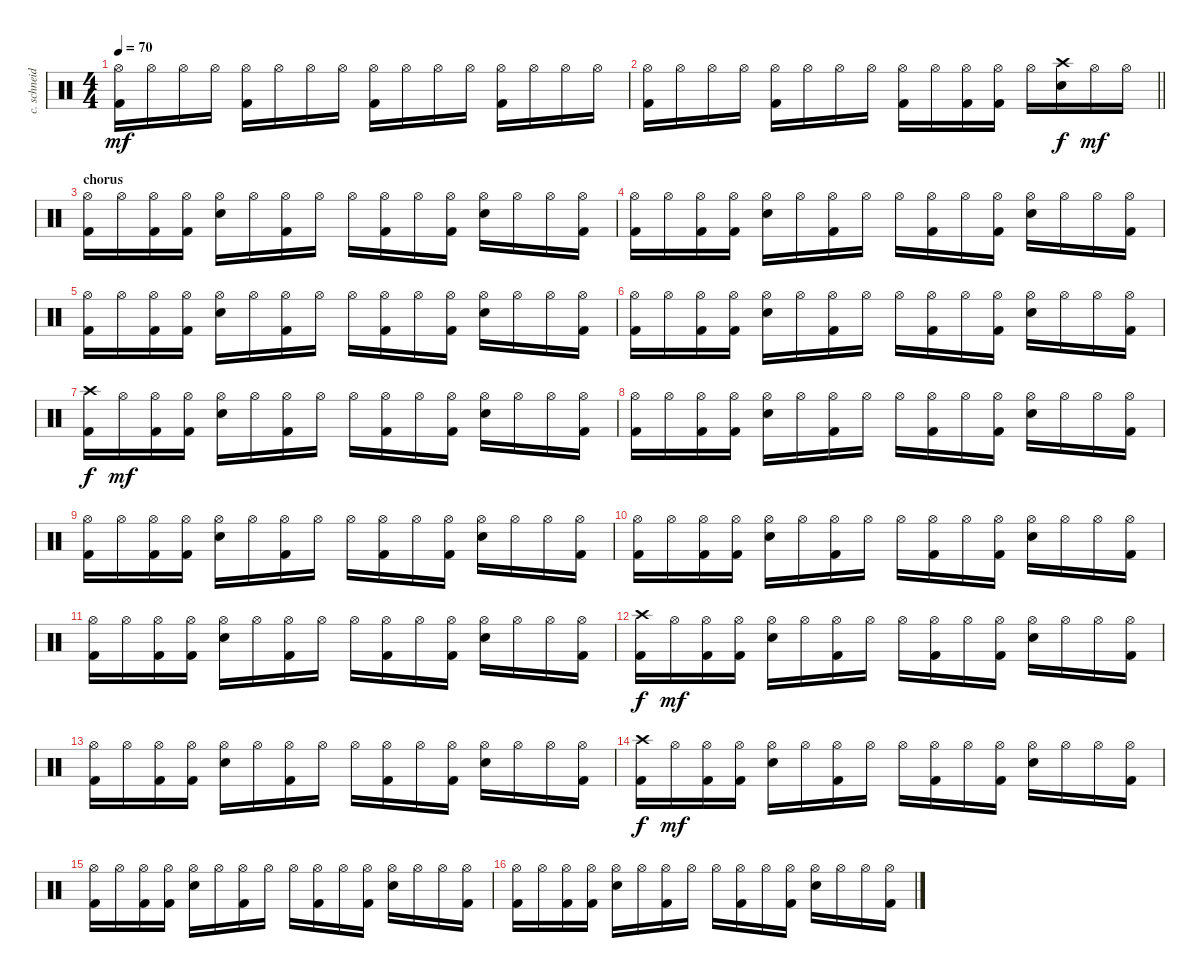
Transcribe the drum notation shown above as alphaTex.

\track ("c. schneider - drums" "c. schneid") {instrument percussion}
\staff {score}
\articulation defaults
\ts (4 4)
\tempo 70
\clef neutral
\ks c
("Hi-Hat (open)" "Kick (hit) 2").16{dy mf} "Hi-Hat (open)".16 "Hi-Hat (open)".16 "Hi-Hat (open)".16 ("Hi-Hat (open)" "Kick (hit) 2").16 "Hi-Hat (open)".16 "Hi-Hat (open)".16 "Hi-Hat (open)".16 ("Hi-Hat (open)" "Kick (hit) 2").16 "Hi-Hat (open)".16 "Hi-Hat (open)".16 "Hi-Hat (open)".16 ("Hi-Hat (open)" "Kick (hit) 2").16 "Hi-Hat (open)".16 "Hi-Hat (open)".16 "Hi-Hat (open)".16 |
\barLineRight lightlight
("Hi-Hat (open)" "Kick (hit) 2").16 "Hi-Hat (open)".16 "Hi-Hat (open)".16 "Hi-Hat (open)".16 ("Hi-Hat (open)" "Kick (hit) 2").16 "Hi-Hat (open)".16 "Hi-Hat (open)".16 "Hi-Hat (open)".16 ("Hi-Hat (open)" "Kick (hit) 2").16 "Hi-Hat (open)".16 ("Hi-Hat (open)" "Kick (hit) 2").16 ("Hi-Hat (open)" "Kick (hit) 2").16 "Hi-Hat (open)".16 ("Crash high (hit)" "Electric Snare (hit)").16{dy f} "Hi-Hat (open)".16{dy mf} "Hi-Hat (open)".16 |
\section ("" "chorus")
("Hi-Hat (open)" "Kick (hit) 2").16 "Hi-Hat (open)".16 ("Hi-Hat (open)" "Kick (hit) 2").16 ("Hi-Hat (open)" "Kick (hit) 2").16 ("Hi-Hat (open)" "Electric Snare (hit)").16 "Hi-Hat (open)".16 ("Hi-Hat (open)" "Kick (hit) 2").16 "Hi-Hat (open)".16 "Hi-Hat (open)".16 ("Hi-Hat (open)" "Kick (hit) 2").16 "Hi-Hat (open)".16 ("Hi-Hat (open)" "Kick (hit) 2").16 ("Hi-Hat (open)" "Electric Snare (hit)").16 "Hi-Hat (open)".16 "Hi-Hat (open)".16 ("Hi-Hat (open)" "Kick (hit) 2").16 |
("Hi-Hat (open)" "Kick (hit) 2").16 "Hi-Hat (open)".16 ("Hi-Hat (open)" "Kick (hit) 2").16 ("Hi-Hat (open)" "Kick (hit) 2").16 ("Hi-Hat (open)" "Electric Snare (hit)").16 "Hi-Hat (open)".16 ("Hi-Hat (open)" "Kick (hit) 2").16 "Hi-Hat (open)".16 "Hi-Hat (open)".16 ("Hi-Hat (open)" "Kick (hit) 2").16 "Hi-Hat (open)".16 ("Hi-Hat (open)" "Kick (hit) 2").16 ("Hi-Hat (open)" "Electric Snare (hit)").16 "Hi-Hat (open)".16 "Hi-Hat (open)".16 ("Hi-Hat (open)" "Kick (hit) 2").16 |
("Hi-Hat (open)" "Kick (hit) 2").16 "Hi-Hat (open)".16 ("Hi-Hat (open)" "Kick (hit) 2").16 ("Hi-Hat (open)" "Kick (hit) 2").16 ("Hi-Hat (open)" "Electric Snare (hit)").16 "Hi-Hat (open)".16 ("Hi-Hat (open)" "Kick (hit) 2").16 "Hi-Hat (open)".16 "Hi-Hat (open)".16 ("Hi-Hat (open)" "Kick (hit) 2").16 "Hi-Hat (open)".16 ("Hi-Hat (open)" "Kick (hit) 2").16 ("Hi-Hat (open)" "Electric Snare (hit)").16 "Hi-Hat (open)".16 "Hi-Hat (open)".16 ("Hi-Hat (open)" "Kick (hit) 2").16 |
("Hi-Hat (open)" "Kick (hit) 2").16 "Hi-Hat (open)".16 ("Hi-Hat (open)" "Kick (hit) 2").16 ("Hi-Hat (open)" "Kick (hit) 2").16 ("Hi-Hat (open)" "Electric Snare (hit)").16 "Hi-Hat (open)".16 ("Hi-Hat (open)" "Kick (hit) 2").16 "Hi-Hat (open)".16 "Hi-Hat (open)".16 ("Hi-Hat (open)" "Kick (hit) 2").16 "Hi-Hat (open)".16 ("Hi-Hat (open)" "Kick (hit) 2").16 ("Hi-Hat (open)" "Electric Snare (hit)").16 "Hi-Hat (open)".16 "Hi-Hat (open)".16 ("Hi-Hat (open)" "Kick (hit) 2").16 |
("Crash high (hit)" "Kick (hit) 2").16{dy f} "Hi-Hat (open)".16{dy mf} ("Hi-Hat (open)" "Kick (hit) 2").16 ("Hi-Hat (open)" "Kick (hit) 2").16 ("Hi-Hat (open)" "Electric Snare (hit)").16 "Hi-Hat (open)".16 ("Hi-Hat (open)" "Kick (hit) 2").16 "Hi-Hat (open)".16 "Hi-Hat (open)".16 ("Hi-Hat (open)" "Kick (hit) 2").16 "Hi-Hat (open)".16 ("Hi-Hat (open)" "Kick (hit) 2").16 ("Hi-Hat (open)" "Electric Snare (hit)").16 "Hi-Hat (open)".16 "Hi-Hat (open)".16 ("Hi-Hat (open)" "Kick (hit) 2").16 |
("Hi-Hat (open)" "Kick (hit) 2").16 "Hi-Hat (open)".16 ("Hi-Hat (open)" "Kick (hit) 2").16 ("Hi-Hat (open)" "Kick (hit) 2").16 ("Hi-Hat (open)" "Electric Snare (hit)").16 "Hi-Hat (open)".16 ("Hi-Hat (open)" "Kick (hit) 2").16 "Hi-Hat (open)".16 "Hi-Hat (open)".16 ("Hi-Hat (open)" "Kick (hit) 2").16 "Hi-Hat (open)".16 ("Hi-Hat (open)" "Kick (hit) 2").16 ("Hi-Hat (open)" "Electric Snare (hit)").16 "Hi-Hat (open)".16 "Hi-Hat (open)".16 ("Hi-Hat (open)" "Kick (hit) 2").16 |
("Hi-Hat (open)" "Kick (hit) 2").16 "Hi-Hat (open)".16 ("Hi-Hat (open)" "Kick (hit) 2").16 ("Hi-Hat (open)" "Kick (hit) 2").16 ("Hi-Hat (open)" "Electric Snare (hit)").16 "Hi-Hat (open)".16 ("Hi-Hat (open)" "Kick (hit) 2").16 "Hi-Hat (open)".16 "Hi-Hat (open)".16 ("Hi-Hat (open)" "Kick (hit) 2").16 "Hi-Hat (open)".16 ("Hi-Hat (open)" "Kick (hit) 2").16 ("Hi-Hat (open)" "Electric Snare (hit)").16 "Hi-Hat (open)".16 "Hi-Hat (open)".16 ("Hi-Hat (open)" "Kick (hit) 2").16 |
("Hi-Hat (open)" "Kick (hit) 2").16 "Hi-Hat (open)".16 ("Hi-Hat (open)" "Kick (hit) 2").16 ("Hi-Hat (open)" "Kick (hit) 2").16 ("Hi-Hat (open)" "Electric Snare (hit)").16 "Hi-Hat (open)".16 ("Hi-Hat (open)" "Kick (hit) 2").16 "Hi-Hat (open)".16 "Hi-Hat (open)".16 ("Hi-Hat (open)" "Kick (hit) 2").16 "Hi-Hat (open)".16 ("Hi-Hat (open)" "Kick (hit) 2").16 ("Hi-Hat (open)" "Electric Snare (hit)").16 "Hi-Hat (open)".16 "Hi-Hat (open)".16 ("Hi-Hat (open)" "Kick (hit) 2").16 |
("Hi-Hat (open)" "Kick (hit) 2").16 "Hi-Hat (open)".16 ("Hi-Hat (open)" "Kick (hit) 2").16 ("Hi-Hat (open)" "Kick (hit) 2").16 ("Hi-Hat (open)" "Electric Snare (hit)").16 "Hi-Hat (open)".16 ("Hi-Hat (open)" "Kick (hit) 2").16 "Hi-Hat (open)".16 "Hi-Hat (open)".16 ("Hi-Hat (open)" "Kick (hit) 2").16 "Hi-Hat (open)".16 ("Hi-Hat (open)" "Kick (hit) 2").16 ("Hi-Hat (open)" "Electric Snare (hit)").16 "Hi-Hat (open)".16 "Hi-Hat (open)".16 ("Hi-Hat (open)" "Kick (hit) 2").16 |
("Crash high (hit)" "Kick (hit) 2").16{dy f} "Hi-Hat (open)".16{dy mf} ("Hi-Hat (open)" "Kick (hit) 2").16 ("Hi-Hat (open)" "Kick (hit) 2").16 ("Hi-Hat (open)" "Electric Snare (hit)").16 "Hi-Hat (open)".16 ("Hi-Hat (open)" "Kick (hit) 2").16 "Hi-Hat (open)".16 "Hi-Hat (open)".16 ("Hi-Hat (open)" "Kick (hit) 2").16 "Hi-Hat (open)".16 ("Hi-Hat (open)" "Kick (hit) 2").16 ("Hi-Hat (open)" "Electric Snare (hit)").16 "Hi-Hat (open)".16 "Hi-Hat (open)".16 ("Hi-Hat (open)" "Kick (hit) 2").16 |
("Hi-Hat (open)" "Kick (hit) 2").16 "Hi-Hat (open)".16 ("Hi-Hat (open)" "Kick (hit) 2").16 ("Hi-Hat (open)" "Kick (hit) 2").16 ("Hi-Hat (open)" "Electric Snare (hit)").16 "Hi-Hat (open)".16 ("Hi-Hat (open)" "Kick (hit) 2").16 "Hi-Hat (open)".16 "Hi-Hat (open)".16 ("Hi-Hat (open)" "Kick (hit) 2").16 "Hi-Hat (open)".16 ("Hi-Hat (open)" "Kick (hit) 2").16 ("Hi-Hat (open)" "Electric Snare (hit)").16 "Hi-Hat (open)".16 "Hi-Hat (open)".16 ("Hi-Hat (open)" "Kick (hit) 2").16 |
("Crash high (hit)" "Kick (hit) 2").16{dy f} "Hi-Hat (open)".16{dy mf} ("Hi-Hat (open)" "Kick (hit) 2").16 ("Hi-Hat (open)" "Kick (hit) 2").16 ("Hi-Hat (open)" "Electric Snare (hit)").16 "Hi-Hat (open)".16 ("Hi-Hat (open)" "Kick (hit) 2").16 "Hi-Hat (open)".16 "Hi-Hat (open)".16 ("Hi-Hat (open)" "Kick (hit) 2").16 "Hi-Hat (open)".16 ("Hi-Hat (open)" "Kick (hit) 2").16 ("Hi-Hat (open)" "Electric Snare (hit)").16 "Hi-Hat (open)".16 "Hi-Hat (open)".16 ("Hi-Hat (open)" "Kick (hit) 2").16 |
("Hi-Hat (open)" "Kick (hit) 2").16 "Hi-Hat (open)".16 ("Hi-Hat (open)" "Kick (hit) 2").16 ("Hi-Hat (open)" "Kick (hit) 2").16 ("Hi-Hat (open)" "Electric Snare (hit)").16 "Hi-Hat (open)".16 ("Hi-Hat (open)" "Kick (hit) 2").16 "Hi-Hat (open)".16 "Hi-Hat (open)".16 ("Hi-Hat (open)" "Kick (hit) 2").16 "Hi-Hat (open)".16 ("Hi-Hat (open)" "Kick (hit) 2").16 ("Hi-Hat (open)" "Electric Snare (hit)").16 "Hi-Hat (open)".16 "Hi-Hat (open)".16 ("Hi-Hat (open)" "Kick (hit) 2").16 |
("Hi-Hat (open)" "Kick (hit) 2").16 "Hi-Hat (open)".16 ("Hi-Hat (open)" "Kick (hit) 2").16 ("Hi-Hat (open)" "Kick (hit) 2").16 ("Hi-Hat (open)" "Electric Snare (hit)").16 "Hi-Hat (open)".16 ("Hi-Hat (open)" "Kick (hit) 2").16 "Hi-Hat (open)".16 "Hi-Hat (open)".16 ("Hi-Hat (open)" "Kick (hit) 2").16 "Hi-Hat (open)".16 ("Hi-Hat (open)" "Kick (hit) 2").16 ("Hi-Hat (open)" "Electric Snare (hit)").16 "Hi-Hat (open)".16 "Hi-Hat (open)".16 ("Hi-Hat (open)" "Kick (hit) 2").16
